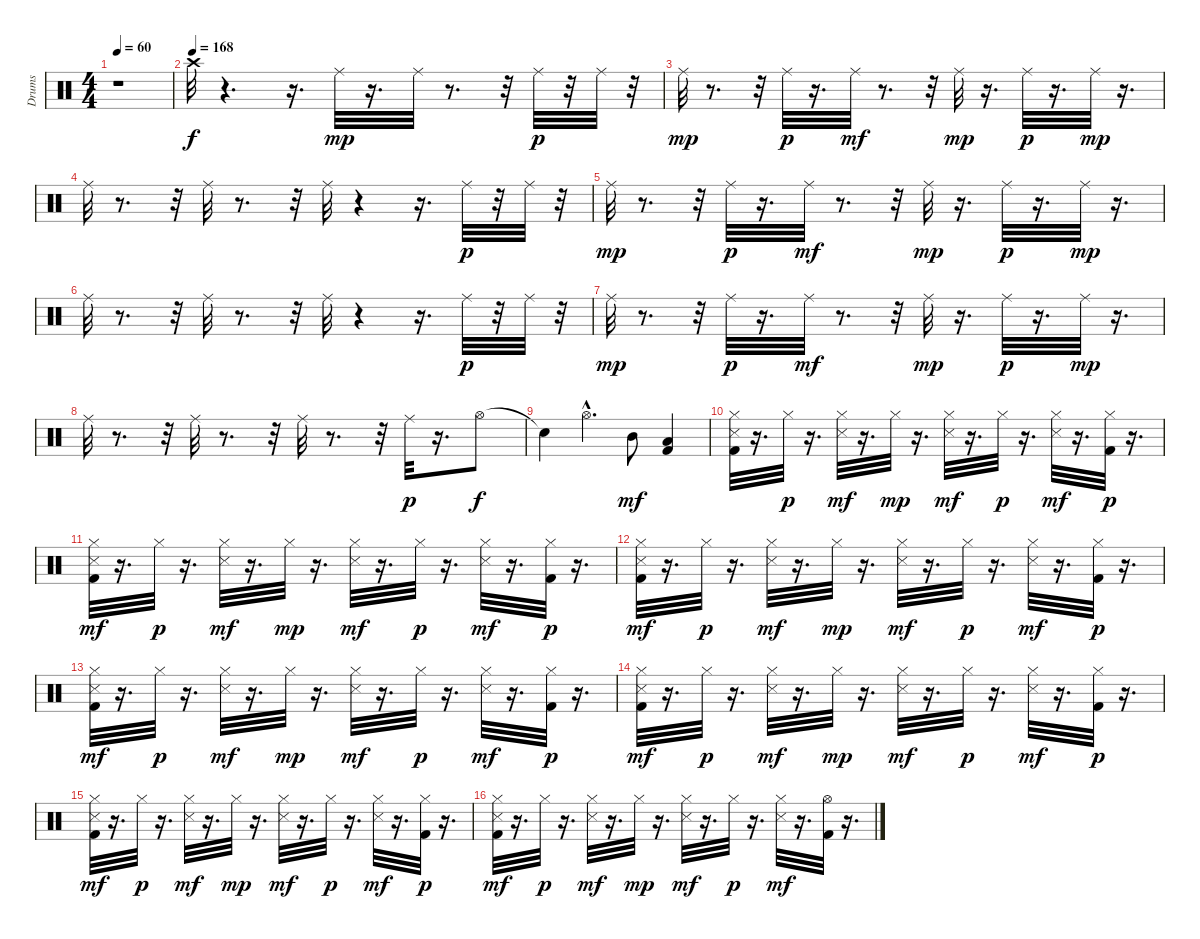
\track ("Drums" "Drums") {instrument percussion}
\staff {score}
\articulation defaults
\ts (4 4)
\tempo 60
\clef neutral
\ks c
r.1{dy f} |
\tempo (168)
"Crash high (hit)".32 r.4{d} r.16{d} "Ride (middle)".32{dy mp} r.16{d} "Ride (middle)".32 r.8{d} r.32 "Ride (middle)".32{dy p} r.32 "Ride (middle)".32 r.32 |
"Ride (middle)".32{dy mp} r.8{d} r.32 "Ride (middle)".32{dy p} r.16{d} "Ride (middle)".32{dy mf} r.8{d} r.32 "Ride (middle)".32{dy mp} r.16{d} "Ride (middle)".32{dy p} r.16{d} "Ride (middle)".32{dy mp} r.16{d} |
"Ride (middle)".32 r.8{d} r.32 "Ride (middle)".32 r.8{d} r.32 "Ride (middle)".32 r.4 r.16{d} "Ride (middle)".32{dy p} r.32 "Ride (middle)".32 r.32 |
"Ride (middle)".32{dy mp} r.8{d} r.32 "Ride (middle)".32{dy p} r.16{d} "Ride (middle)".32{dy mf} r.8{d} r.32 "Ride (middle)".32{dy mp} r.16{d} "Ride (middle)".32{dy p} r.16{d} "Ride (middle)".32{dy mp} r.16{d} |
"Ride (middle)".32 r.8{d} r.32 "Ride (middle)".32 r.8{d} r.32 "Ride (middle)".32 r.4 r.16{d} "Ride (middle)".32{dy p} r.32 "Ride (middle)".32 r.32 |
"Ride (middle)".32{dy mp} r.8{d} r.32 "Ride (middle)".32{dy p} r.16{d} "Ride (middle)".32{dy mf} r.8{d} r.32 "Ride (middle)".32{dy mp} r.16{d} "Ride (middle)".32{dy p} r.16{d} "Ride (middle)".32{dy mp} r.16{d} |
"Ride (middle)".32 r.8{d} r.32 "Ride (middle)".32 r.8{d} r.32 "Ride (middle)".32 r.8{d} r.32 "Ride (middle)".32{dy p} r.16{d} "Hi-Hat (open)".8{dy f} |
"Snare (hit)"{t}.4 "Hi-Hat (open)"{hac}.4{d} "Mid Tom (hit)".8{dy mf} ("Kick (hit) 2" "Low Tom (hit)").4 |
("Hi-Hat (closed)" "Kick (hit) 2" "Snare (side stick) 3").32 r.16{d} "Hi-Hat (closed)".32{dy p} r.16{d} ("Hi-Hat (closed)" "Snare (side stick) 3").32{dy mf} r.16{d} "Hi-Hat (closed)".32{dy mp} r.16{d} ("Hi-Hat (closed)" "Snare (side stick) 3").32{dy mf} r.16{d} "Hi-Hat (closed)".32{dy p} r.16{d} ("Hi-Hat (closed)" "Snare (side stick) 3").32{dy mf} r.16{d} ("Hi-Hat (closed)" "Kick (hit) 2").32{dy p} r.16{d} |
("Hi-Hat (closed)" "Kick (hit) 2" "Snare (side stick) 3").32{dy mf} r.16{d} "Hi-Hat (closed)".32{dy p} r.16{d} ("Hi-Hat (closed)" "Snare (side stick) 3").32{dy mf} r.16{d} "Hi-Hat (closed)".32{dy mp} r.16{d} ("Hi-Hat (closed)" "Snare (side stick) 3").32{dy mf} r.16{d} "Hi-Hat (closed)".32{dy p} r.16{d} ("Hi-Hat (closed)" "Snare (side stick) 3").32{dy mf} r.16{d} ("Hi-Hat (closed)" "Kick (hit) 2").32{dy p} r.16{d} |
("Hi-Hat (closed)" "Kick (hit) 2" "Snare (side stick) 3").32{dy mf} r.16{d} "Hi-Hat (closed)".32{dy p} r.16{d} ("Hi-Hat (closed)" "Snare (side stick) 3").32{dy mf} r.16{d} "Hi-Hat (closed)".32{dy mp} r.16{d} ("Hi-Hat (closed)" "Snare (side stick) 3").32{dy mf} r.16{d} "Hi-Hat (closed)".32{dy p} r.16{d} ("Hi-Hat (closed)" "Snare (side stick) 3").32{dy mf} r.16{d} ("Hi-Hat (closed)" "Kick (hit) 2").32{dy p} r.16{d} |
("Hi-Hat (closed)" "Kick (hit) 2" "Snare (side stick) 3").32{dy mf} r.16{d} "Hi-Hat (closed)".32{dy p} r.16{d} ("Hi-Hat (closed)" "Snare (side stick) 3").32{dy mf} r.16{d} "Hi-Hat (closed)".32{dy mp} r.16{d} ("Hi-Hat (closed)" "Snare (side stick) 3").32{dy mf} r.16{d} "Hi-Hat (closed)".32{dy p} r.16{d} ("Hi-Hat (closed)" "Snare (side stick) 3").32{dy mf} r.16{d} ("Hi-Hat (closed)" "Kick (hit) 2").32{dy p} r.16{d} |
("Hi-Hat (closed)" "Kick (hit) 2" "Snare (side stick) 3").32{dy mf} r.16{d} "Hi-Hat (closed)".32{dy p} r.16{d} ("Hi-Hat (closed)" "Snare (side stick) 3").32{dy mf} r.16{d} "Hi-Hat (closed)".32{dy mp} r.16{d} ("Hi-Hat (closed)" "Snare (side stick) 3").32{dy mf} r.16{d} "Hi-Hat (closed)".32{dy p} r.16{d} ("Hi-Hat (closed)" "Snare (side stick) 3").32{dy mf} r.16{d} ("Hi-Hat (closed)" "Kick (hit) 2").32{dy p} r.16{d} |
("Hi-Hat (closed)" "Kick (hit) 2" "Snare (side stick) 3").32{dy mf} r.16{d} "Hi-Hat (closed)".32{dy p} r.16{d} ("Hi-Hat (closed)" "Snare (side stick) 3").32{dy mf} r.16{d} "Hi-Hat (closed)".32{dy mp} r.16{d} ("Hi-Hat (closed)" "Snare (side stick) 3").32{dy mf} r.16{d} "Hi-Hat (closed)".32{dy p} r.16{d} ("Hi-Hat (closed)" "Snare (side stick) 3").32{dy mf} r.16{d} ("Hi-Hat (closed)" "Kick (hit) 2").32{dy p} r.16{d} |
("Hi-Hat (closed)" "Kick (hit) 2" "Snare (side stick) 3").32{dy mf} r.16{d} "Hi-Hat (closed)".32{dy p} r.16{d} ("Hi-Hat (closed)" "Snare (side stick) 3").32{dy mf} r.16{d} "Hi-Hat (closed)".32{dy mp} r.16{d} ("Hi-Hat (closed)" "Snare (side stick) 3").32{dy mf} r.16{d} "Hi-Hat (closed)".32{dy p} r.16{d} ("Hi-Hat (closed)" "Snare (side stick) 3").32{dy mf} r.16{d} ("Kick (hit) 2" "Hi-Hat (open)").32 r.16{d}
